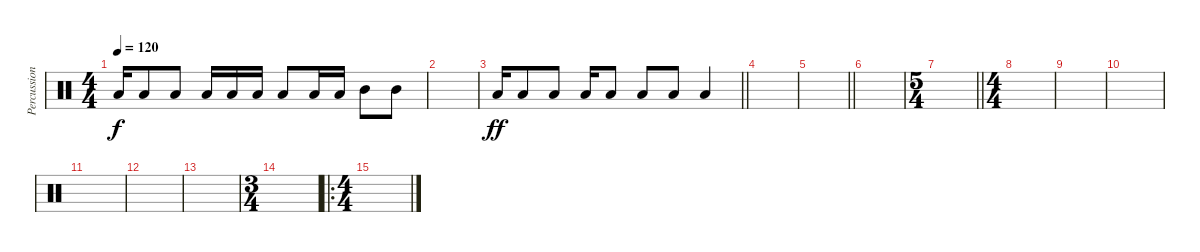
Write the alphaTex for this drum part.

\track ("Percussion" "Percussion") {instrument percussion}
\staff {score}
\articulation defaults
\ts (4 4)
\tempo 120
\clef neutral
\ks c "Low Tom (hit)".16{dy f} "Low Tom (hit)".8 "Low Floor Tom (hit)".8 "Low Tom (hit)".16 "Low Tom (hit)".16 "Low Tom (hit)".16 "Low Floor Tom (hit)".8 "Low Floor Tom (hit)".16 "Low Floor Tom (hit)".16 "Mid Tom (hit)".8 "Mid Tom (hit)".8
|
|
\barLineRight lightlight "Low Tom (hit)".16{dy ff} "Low Tom (hit)".8 "Low Tom (hit)".8 "Low Tom (hit)".16 "Low Tom (hit)".8 "Low Tom (hit)".8 "Low Tom (hit)".8 "Low Tom (hit)".4
|
|
\barLineRight lightlight
|
|
\ts (5 4)
\barLineRight lightlight
|
\ts (4 4)
\section ("" "")
|
|
|
|
|
|
\ts (3 4)
|
\ro
\ts (4 4)
